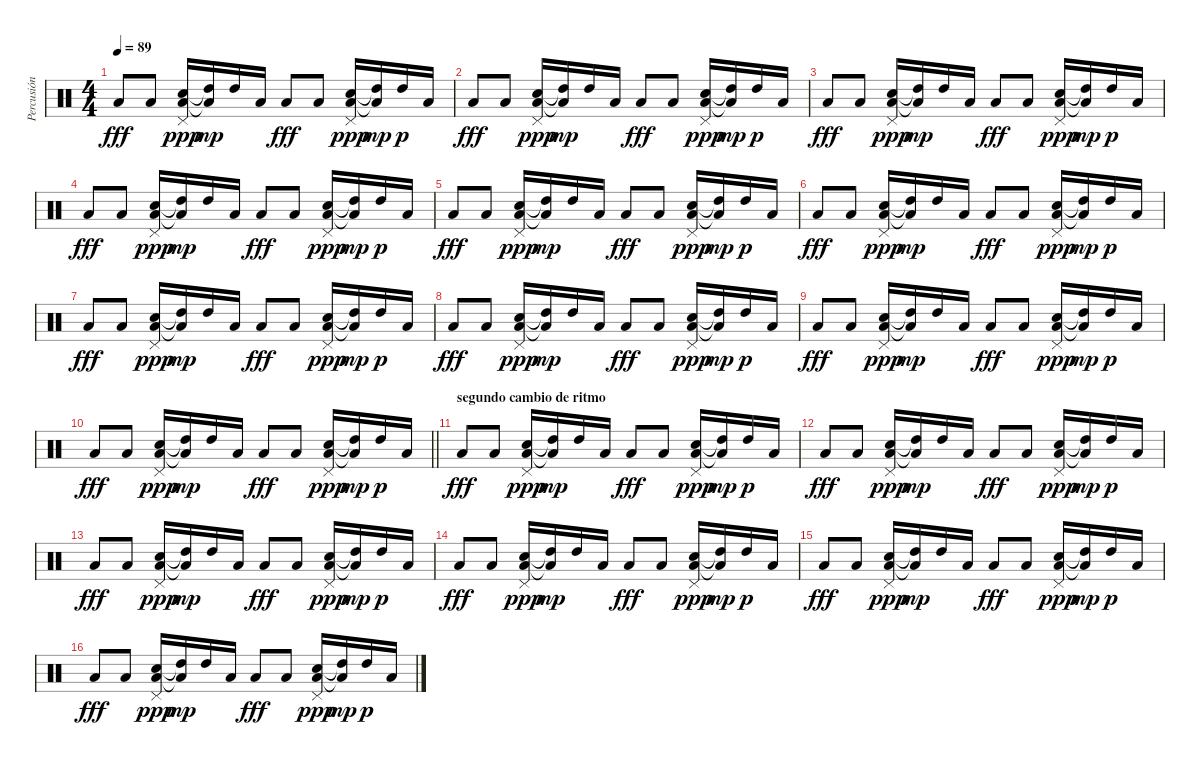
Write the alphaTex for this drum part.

\track ("Percusión" "Percusión") {instrument percussion}
\staff {score}
\articulation defaults
\ts (4 4)
\tempo 89
\clef neutral
\ks c "Low Floor Tom (hit)".8{dy fff} "Low Floor Tom (hit)".8
("Electric Snare (hit)" "Low Floor Tom (hit)" "Pedal Hi-Hat (hit)").16{dy ppp} ("High Tom (hit)"{t} "Low Floor Tom (hit)"{t}).16{dy mp} "High Tom (hit)".16 "Low Tom (hit)".16 "Low Floor Tom (hit)".8{dy fff} "Low Floor Tom (hit)".8 ("Electric Snare (hit)" "Low Floor Tom (hit)" "Pedal Hi-Hat (hit)").16{dy ppp} ("High Tom (hit)"{t} "Low Floor Tom (hit)"{t}).16{dy mp} "High Tom (hit)".16{dy p} "Low Tom (hit)".16 |
"Low Floor Tom (hit)".8{dy fff} "Low Floor Tom (hit)".8 ("Electric Snare (hit)" "Low Floor Tom (hit)" "Pedal Hi-Hat (hit)").16{dy ppp} ("High Tom (hit)"{t} "Low Floor Tom (hit)"{t}).16{dy mp} "High Tom (hit)".16 "Low Tom (hit)".16 "Low Floor Tom (hit)".8{dy fff} "Low Floor Tom (hit)".8 ("Electric Snare (hit)" "Low Floor Tom (hit)" "Pedal Hi-Hat (hit)").16{dy ppp} ("High Tom (hit)"{t} "Low Floor Tom (hit)"{t}).16{dy mp} "High Tom (hit)".16{dy p} "Low Tom (hit)".16 |
"Low Floor Tom (hit)".8{dy fff} "Low Floor Tom (hit)".8 ("Electric Snare (hit)" "Low Floor Tom (hit)" "Pedal Hi-Hat (hit)").16{dy ppp} ("High Tom (hit)"{t} "Low Floor Tom (hit)"{t}).16{dy mp} "High Tom (hit)".16 "Low Tom (hit)".16 "Low Floor Tom (hit)".8{dy fff} "Low Floor Tom (hit)".8 ("Electric Snare (hit)" "Low Floor Tom (hit)" "Pedal Hi-Hat (hit)").16{dy ppp} ("High Tom (hit)"{t} "Low Floor Tom (hit)"{t}).16{dy mp} "High Tom (hit)".16{dy p} "Low Tom (hit)".16 |
"Low Floor Tom (hit)".8{dy fff} "Low Floor Tom (hit)".8 ("Electric Snare (hit)" "Low Floor Tom (hit)" "Pedal Hi-Hat (hit)").16{dy ppp} ("High Tom (hit)"{t} "Low Floor Tom (hit)"{t}).16{dy mp} "High Tom (hit)".16 "Low Tom (hit)".16 "Low Floor Tom (hit)".8{dy fff} "Low Floor Tom (hit)".8 ("Electric Snare (hit)" "Low Floor Tom (hit)" "Pedal Hi-Hat (hit)").16{dy ppp} ("High Tom (hit)"{t} "Low Floor Tom (hit)"{t}).16{dy mp} "High Tom (hit)".16{dy p} "Low Tom (hit)".16 |
"Low Floor Tom (hit)".8{dy fff} "Low Floor Tom (hit)".8 ("Electric Snare (hit)" "Low Floor Tom (hit)" "Pedal Hi-Hat (hit)").16{dy ppp} ("High Tom (hit)"{t} "Low Floor Tom (hit)"{t}).16{dy mp} "High Tom (hit)".16 "Low Tom (hit)".16 "Low Floor Tom (hit)".8{dy fff} "Low Floor Tom (hit)".8 ("Electric Snare (hit)" "Low Floor Tom (hit)" "Pedal Hi-Hat (hit)").16{dy ppp} ("High Tom (hit)"{t} "Low Floor Tom (hit)"{t}).16{dy mp} "High Tom (hit)".16{dy p} "Low Tom (hit)".16 |
"Low Floor Tom (hit)".8{dy fff} "Low Floor Tom (hit)".8 ("Electric Snare (hit)" "Low Floor Tom (hit)" "Pedal Hi-Hat (hit)").16{dy ppp} ("High Tom (hit)"{t} "Low Floor Tom (hit)"{t}).16{dy mp} "High Tom (hit)".16 "Low Tom (hit)".16 "Low Floor Tom (hit)".8{dy fff} "Low Floor Tom (hit)".8 ("Electric Snare (hit)" "Low Floor Tom (hit)" "Pedal Hi-Hat (hit)").16{dy ppp} ("High Tom (hit)"{t} "Low Floor Tom (hit)"{t}).16{dy mp} "High Tom (hit)".16{dy p} "Low Tom (hit)".16 |
"Low Floor Tom (hit)".8{dy fff} "Low Floor Tom (hit)".8 ("Electric Snare (hit)" "Low Floor Tom (hit)" "Pedal Hi-Hat (hit)").16{dy ppp} ("High Tom (hit)"{t} "Low Floor Tom (hit)"{t}).16{dy mp} "High Tom (hit)".16 "Low Tom (hit)".16 "Low Floor Tom (hit)".8{dy fff} "Low Floor Tom (hit)".8 ("Electric Snare (hit)" "Low Floor Tom (hit)" "Pedal Hi-Hat (hit)").16{dy ppp} ("High Tom (hit)"{t} "Low Floor Tom (hit)"{t}).16{dy mp} "High Tom (hit)".16{dy p} "Low Tom (hit)".16 |
"Low Floor Tom (hit)".8{dy fff} "Low Floor Tom (hit)".8 ("Electric Snare (hit)" "Low Floor Tom (hit)" "Pedal Hi-Hat (hit)").16{dy ppp} ("High Tom (hit)"{t} "Low Floor Tom (hit)"{t}).16{dy mp} "High Tom (hit)".16 "Low Tom (hit)".16 "Low Floor Tom (hit)".8{dy fff} "Low Floor Tom (hit)".8 ("Electric Snare (hit)" "Low Floor Tom (hit)" "Pedal Hi-Hat (hit)").16{dy ppp} ("High Tom (hit)"{t} "Low Floor Tom (hit)"{t}).16{dy mp} "High Tom (hit)".16{dy p} "Low Tom (hit)".16 |
"Low Floor Tom (hit)".8{dy fff} "Low Floor Tom (hit)".8 ("Electric Snare (hit)" "Low Floor Tom (hit)" "Pedal Hi-Hat (hit)").16{dy ppp} ("High Tom (hit)"{t} "Low Floor Tom (hit)"{t}).16{dy mp} "High Tom (hit)".16 "Low Tom (hit)".16 "Low Floor Tom (hit)".8{dy fff} "Low Floor Tom (hit)".8 ("Electric Snare (hit)" "Low Floor Tom (hit)" "Pedal Hi-Hat (hit)").16{dy ppp} ("High Tom (hit)"{t} "Low Floor Tom (hit)"{t}).16{dy mp} "High Tom (hit)".16{dy p} "Low Tom (hit)".16 |
\barLineRight lightlight "Low Floor Tom (hit)".8{dy fff} "Low Floor Tom (hit)".8
("Electric Snare (hit)" "Low Floor Tom (hit)" "Pedal Hi-Hat (hit)").16{dy ppp} ("High Tom (hit)"{t} "Low Floor Tom (hit)"{t}).16{dy mp} "High Tom (hit)".16 "Low Tom (hit)".16 "Low Floor Tom (hit)".8{dy fff} "Low Floor Tom (hit)".8 ("Electric Snare (hit)" "Low Floor Tom (hit)" "Pedal Hi-Hat (hit)").16{dy ppp} ("High Tom (hit)"{t} "Low Floor Tom (hit)"{t}).16{dy mp} "High Tom (hit)".16{dy p} "Low Tom (hit)".16 |
\section ("" "segundo cambio de ritmo")
"Low Floor Tom (hit)".8{dy fff} "Low Floor Tom (hit)".8 ("Electric Snare (hit)" "Low Floor Tom (hit)" "Pedal Hi-Hat (hit)").16{dy ppp} ("High Tom (hit)"{t} "Low Floor Tom (hit)"{t}).16{dy mp} "High Tom (hit)".16 "Low Tom (hit)".16 "Low Floor Tom (hit)".8{dy fff} "Low Floor Tom (hit)".8 ("Electric Snare (hit)" "Low Floor Tom (hit)" "Pedal Hi-Hat (hit)").16{dy ppp} ("High Tom (hit)"{t} "Low Floor Tom (hit)"{t}).16{dy mp} "High Tom (hit)".16{dy p} "Low Tom (hit)".16 |
"Low Floor Tom (hit)".8{dy fff} "Low Floor Tom (hit)".8 ("Electric Snare (hit)" "Low Floor Tom (hit)" "Pedal Hi-Hat (hit)").16{dy ppp} ("High Tom (hit)"{t} "Low Floor Tom (hit)"{t}).16{dy mp} "High Tom (hit)".16 "Low Tom (hit)".16 "Low Floor Tom (hit)".8{dy fff} "Low Floor Tom (hit)".8 ("Electric Snare (hit)" "Low Floor Tom (hit)" "Pedal Hi-Hat (hit)").16{dy ppp} ("High Tom (hit)"{t} "Low Floor Tom (hit)"{t}).16{dy mp} "High Tom (hit)".16{dy p} "Low Tom (hit)".16 |
"Low Floor Tom (hit)".8{dy fff} "Low Floor Tom (hit)".8 ("Electric Snare (hit)" "Low Floor Tom (hit)" "Pedal Hi-Hat (hit)").16{dy ppp} ("High Tom (hit)"{t} "Low Floor Tom (hit)"{t}).16{dy mp} "High Tom (hit)".16 "Low Tom (hit)".16 "Low Floor Tom (hit)".8{dy fff} "Low Floor Tom (hit)".8 ("Electric Snare (hit)" "Low Floor Tom (hit)" "Pedal Hi-Hat (hit)").16{dy ppp} ("High Tom (hit)"{t} "Low Floor Tom (hit)"{t}).16{dy mp} "High Tom (hit)".16{dy p} "Low Tom (hit)".16 |
"Low Floor Tom (hit)".8{dy fff} "Low Floor Tom (hit)".8 ("Electric Snare (hit)" "Low Floor Tom (hit)" "Pedal Hi-Hat (hit)").16{dy ppp} ("High Tom (hit)"{t} "Low Floor Tom (hit)"{t}).16{dy mp} "High Tom (hit)".16 "Low Tom (hit)".16 "Low Floor Tom (hit)".8{dy fff} "Low Floor Tom (hit)".8 ("Electric Snare (hit)" "Low Floor Tom (hit)" "Pedal Hi-Hat (hit)").16{dy ppp} ("High Tom (hit)"{t} "Low Floor Tom (hit)"{t}).16{dy mp} "High Tom (hit)".16{dy p} "Low Tom (hit)".16 |
"Low Floor Tom (hit)".8{dy fff} "Low Floor Tom (hit)".8 ("Electric Snare (hit)" "Low Floor Tom (hit)" "Pedal Hi-Hat (hit)").16{dy ppp} ("High Tom (hit)"{t} "Low Floor Tom (hit)"{t}).16{dy mp} "High Tom (hit)".16 "Low Tom (hit)".16 "Low Floor Tom (hit)".8{dy fff} "Low Floor Tom (hit)".8 ("Electric Snare (hit)" "Low Floor Tom (hit)" "Pedal Hi-Hat (hit)").16{dy ppp} ("High Tom (hit)"{t} "Low Floor Tom (hit)"{t}).16{dy mp} "High Tom (hit)".16{dy p} "Low Tom (hit)".16 |
"Low Floor Tom (hit)".8{dy fff} "Low Floor Tom (hit)".8 ("Electric Snare (hit)" "Low Floor Tom (hit)" "Pedal Hi-Hat (hit)").16{dy ppp} ("High Tom (hit)"{t} "Low Floor Tom (hit)"{t}).16{dy mp} "High Tom (hit)".16 "Low Tom (hit)".16 "Low Floor Tom (hit)".8{dy fff} "Low Floor Tom (hit)".8 ("Electric Snare (hit)" "Low Floor Tom (hit)" "Pedal Hi-Hat (hit)").16{dy ppp} ("High Tom (hit)"{t} "Low Floor Tom (hit)"{t}).16{dy mp} "High Tom (hit)".16{dy p} "Low Tom (hit)".16
